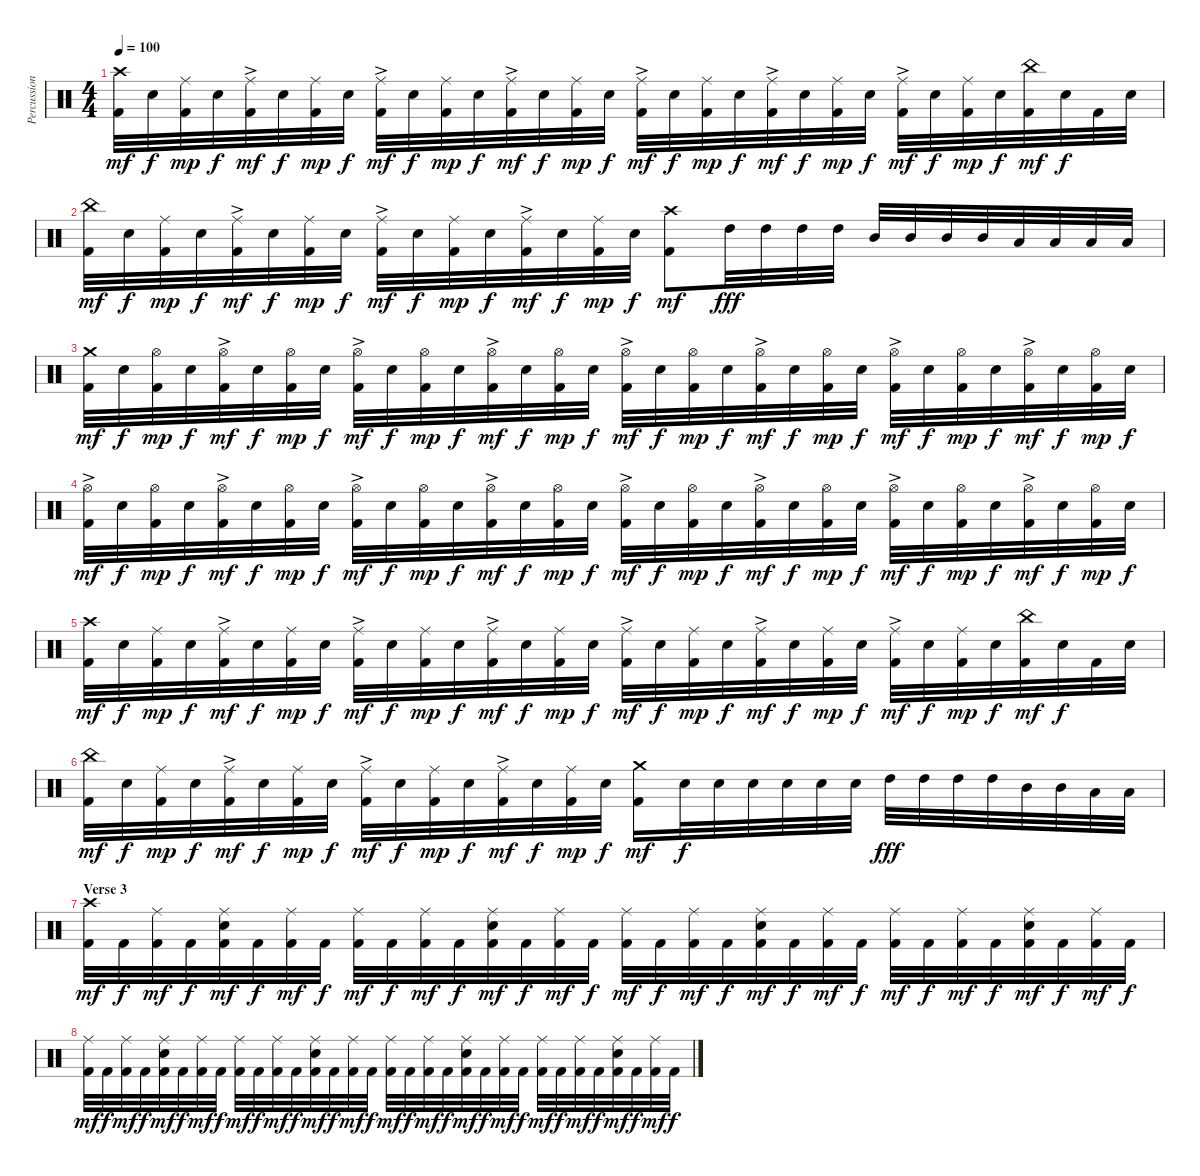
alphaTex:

\track ("Percussion" "Percussion") {instrument percussion}
\staff {score}
\articulation defaults
\ts (4 4)
\tempo 100
\clef neutral
\ks c
("Crash high (hit)" "Kick (hit) 2").32{dy mf} "Electric Snare (hit)".32{dy f} ("Ride (middle)" "Kick (hit) 2").32{dy mp} "Electric Snare (hit)".32{dy f} ("Ride (middle)"{ac} "Kick (hit) 2").32{dy mf} "Electric Snare (hit)".32{dy f} ("Ride (middle)" "Kick (hit) 2").32{dy mp} "Electric Snare (hit)".32{dy f} ("Ride (middle)"{ac} "Kick (hit) 2").32{dy mf} "Electric Snare (hit)".32{dy f} ("Ride (middle)" "Kick (hit) 2").32{dy mp} "Electric Snare (hit)".32{dy f} ("Ride (middle)"{ac} "Kick (hit) 2").32{dy mf} "Electric Snare (hit)".32{dy f} ("Ride (middle)" "Kick (hit) 2").32{dy mp} "Electric Snare (hit)".32{dy f} ("Ride (middle)"{ac} "Kick (hit) 2").32{dy mf} "Electric Snare (hit)".32{dy f} ("Ride (middle)" "Kick (hit) 2").32{dy mp} "Electric Snare (hit)".32{dy f} ("Ride (middle)"{ac} "Kick (hit) 2").32{dy mf} "Electric Snare (hit)".32{dy f} ("Ride (middle)" "Kick (hit) 2").32{dy mp} "Electric Snare (hit)".32{dy f} ("Ride (middle)"{ac} "Kick (hit) 2").32{dy mf} "Electric Snare (hit)".32{dy f} ("Ride (middle)" "Kick (hit) 2").32{dy mp} "Electric Snare (hit)".32{dy f} ("China (hit)" "Kick (hit) 2").32{dy mf} "Electric Snare (hit)".32{dy f} "Kick (hit) 2".32 "Electric Snare (hit)".32 |
("China (hit)" "Kick (hit) 2").32{dy mf} "Electric Snare (hit)".32{dy f} ("Ride (middle)" "Kick (hit) 2").32{dy mp} "Electric Snare (hit)".32{dy f} ("Ride (middle)"{ac} "Kick (hit) 2").32{dy mf} "Electric Snare (hit)".32{dy f} ("Ride (middle)" "Kick (hit) 2").32{dy mp} "Electric Snare (hit)".32{dy f} ("Ride (middle)"{ac} "Kick (hit) 2").32{dy mf} "Electric Snare (hit)".32{dy f} ("Ride (middle)" "Kick (hit) 2").32{dy mp} "Electric Snare (hit)".32{dy f} ("Ride (middle)"{ac} "Kick (hit) 2").32{dy mf} "Electric Snare (hit)".32{dy f} ("Ride (middle)" "Kick (hit) 2").32{dy mp} "Electric Snare (hit)".32{dy f} ("Crash high (hit)" "Kick (hit) 2").8{dy mf} "High Tom (hit)".32{dy fff} "High Tom (hit)".32 "High Tom (hit)".32 "High Tom (hit)".32 "Mid Tom (hit)".32 "Mid Tom (hit)".32 "Mid Tom (hit)".32 "Mid Tom (hit)".32 "Low Tom (hit)".32 "Low Tom (hit)".32 "Low Tom (hit)".32 "Low Tom (hit)".32 |
("Crash medium (hit)" "Kick (hit) 2").32{dy mf} "Electric Snare (hit)".32{dy f} ("Hi-Hat (open)" "Kick (hit) 2").32{dy mp} "Electric Snare (hit)".32{dy f} ("Hi-Hat (open)"{ac} "Kick (hit) 2").32{dy mf} "Electric Snare (hit)".32{dy f} ("Hi-Hat (open)" "Kick (hit) 2").32{dy mp} "Electric Snare (hit)".32{dy f} ("Hi-Hat (open)"{ac} "Kick (hit) 2").32{dy mf} "Electric Snare (hit)".32{dy f} ("Hi-Hat (open)" "Kick (hit) 2").32{dy mp} "Electric Snare (hit)".32{dy f} ("Hi-Hat (open)"{ac} "Kick (hit) 2").32{dy mf} "Electric Snare (hit)".32{dy f} ("Hi-Hat (open)" "Kick (hit) 2").32{dy mp} "Electric Snare (hit)".32{dy f} ("Hi-Hat (open)"{ac} "Kick (hit) 2").32{dy mf} "Electric Snare (hit)".32{dy f} ("Hi-Hat (open)" "Kick (hit) 2").32{dy mp} "Electric Snare (hit)".32{dy f} ("Hi-Hat (open)"{ac} "Kick (hit) 2").32{dy mf} "Electric Snare (hit)".32{dy f} ("Hi-Hat (open)" "Kick (hit) 2").32{dy mp} "Electric Snare (hit)".32{dy f} ("Hi-Hat (open)"{ac} "Kick (hit) 2").32{dy mf} "Electric Snare (hit)".32{dy f} ("Hi-Hat (open)" "Kick (hit) 2").32{dy mp} "Electric Snare (hit)".32{dy f} ("Hi-Hat (open)"{ac} "Kick (hit) 2").32{dy mf} "Electric Snare (hit)".32{dy f} ("Hi-Hat (open)" "Kick (hit) 2").32{dy mp} "Electric Snare (hit)".32{dy f} |
("Hi-Hat (open)"{ac} "Kick (hit) 2").32{dy mf} "Electric Snare (hit)".32{dy f} ("Hi-Hat (open)" "Kick (hit) 2").32{dy mp} "Electric Snare (hit)".32{dy f} ("Hi-Hat (open)"{ac} "Kick (hit) 2").32{dy mf} "Electric Snare (hit)".32{dy f} ("Hi-Hat (open)" "Kick (hit) 2").32{dy mp} "Electric Snare (hit)".32{dy f} ("Hi-Hat (open)"{ac} "Kick (hit) 2").32{dy mf} "Electric Snare (hit)".32{dy f} ("Hi-Hat (open)" "Kick (hit) 2").32{dy mp} "Electric Snare (hit)".32{dy f} ("Hi-Hat (open)"{ac} "Kick (hit) 2").32{dy mf} "Electric Snare (hit)".32{dy f} ("Hi-Hat (open)" "Kick (hit) 2").32{dy mp} "Electric Snare (hit)".32{dy f} ("Hi-Hat (open)"{ac} "Kick (hit) 2").32{dy mf} "Electric Snare (hit)".32{dy f} ("Hi-Hat (open)" "Kick (hit) 2").32{dy mp} "Electric Snare (hit)".32{dy f} ("Hi-Hat (open)"{ac} "Kick (hit) 2").32{dy mf} "Electric Snare (hit)".32{dy f} ("Hi-Hat (open)" "Kick (hit) 2").32{dy mp} "Electric Snare (hit)".32{dy f} ("Hi-Hat (open)"{ac} "Kick (hit) 2").32{dy mf} "Electric Snare (hit)".32{dy f} ("Hi-Hat (open)" "Kick (hit) 2").32{dy mp} "Electric Snare (hit)".32{dy f} ("Hi-Hat (open)"{ac} "Kick (hit) 2").32{dy mf} "Electric Snare (hit)".32{dy f} ("Hi-Hat (open)" "Kick (hit) 2").32{dy mp} "Electric Snare (hit)".32{dy f} |
("Crash high (hit)" "Kick (hit) 2").32{dy mf} "Electric Snare (hit)".32{dy f} ("Ride (middle)" "Kick (hit) 2").32{dy mp} "Electric Snare (hit)".32{dy f} ("Ride (middle)"{ac} "Kick (hit) 2").32{dy mf} "Electric Snare (hit)".32{dy f} ("Ride (middle)" "Kick (hit) 2").32{dy mp} "Electric Snare (hit)".32{dy f} ("Ride (middle)"{ac} "Kick (hit) 2").32{dy mf} "Electric Snare (hit)".32{dy f} ("Ride (middle)" "Kick (hit) 2").32{dy mp} "Electric Snare (hit)".32{dy f} ("Ride (middle)"{ac} "Kick (hit) 2").32{dy mf} "Electric Snare (hit)".32{dy f} ("Ride (middle)" "Kick (hit) 2").32{dy mp} "Electric Snare (hit)".32{dy f} ("Ride (middle)"{ac} "Kick (hit) 2").32{dy mf} "Electric Snare (hit)".32{dy f} ("Ride (middle)" "Kick (hit) 2").32{dy mp} "Electric Snare (hit)".32{dy f} ("Ride (middle)"{ac} "Kick (hit) 2").32{dy mf} "Electric Snare (hit)".32{dy f} ("Ride (middle)" "Kick (hit) 2").32{dy mp} "Electric Snare (hit)".32{dy f} ("Ride (middle)"{ac} "Kick (hit) 2").32{dy mf} "Electric Snare (hit)".32{dy f} ("Ride (middle)" "Kick (hit) 2").32{dy mp} "Electric Snare (hit)".32{dy f} ("China (hit)" "Kick (hit) 2").32{dy mf} "Electric Snare (hit)".32{dy f} "Kick (hit) 2".32 "Electric Snare (hit)".32 |
("China (hit)" "Kick (hit) 2").32{dy mf} "Electric Snare (hit)".32{dy f} ("Ride (middle)" "Kick (hit) 2").32{dy mp} "Electric Snare (hit)".32{dy f} ("Ride (middle)"{ac} "Kick (hit) 2").32{dy mf} "Electric Snare (hit)".32{dy f} ("Ride (middle)" "Kick (hit) 2").32{dy mp} "Electric Snare (hit)".32{dy f} ("Ride (middle)"{ac} "Kick (hit) 2").32{dy mf} "Electric Snare (hit)".32{dy f} ("Ride (middle)" "Kick (hit) 2").32{dy mp} "Electric Snare (hit)".32{dy f} ("Ride (middle)"{ac} "Kick (hit) 2").32{dy mf} "Electric Snare (hit)".32{dy f} ("Ride (middle)" "Kick (hit) 2").32{dy mp} "Electric Snare (hit)".32{dy f} ("Crash medium (hit)" "Kick (hit) 2").16{dy mf} "Electric Snare (hit)".32{dy f} "Electric Snare (hit)".32 "Electric Snare (hit)".32 "Electric Snare (hit)".32 "Electric Snare (hit)".32 "Electric Snare (hit)".32 "High Tom (hit)".32{dy fff} "High Tom (hit)".32 "High Tom (hit)".32 "High Tom (hit)".32 "Mid Tom (hit)".32 "Mid Tom (hit)".32 "Low Tom (hit)".32 "Low Tom (hit)".32 |
\section ("" "Verse 3")
("Crash high (hit)" "Kick (hit) 2").32{dy mf} "Kick (hit) 2".32{dy f} ("Ride (middle)" "Kick (hit) 2").32{dy mf} "Kick (hit) 2".32{dy f} ("Ride (middle)" "Electric Snare (hit)" "Kick (hit) 2").32{dy mf} "Kick (hit) 2".32{dy f} ("Ride (middle)" "Kick (hit) 2").32{dy mf} "Kick (hit) 2".32{dy f} ("Ride (middle)" "Kick (hit) 2").32{dy mf} "Kick (hit) 2".32{dy f} ("Ride (middle)" "Kick (hit) 2").32{dy mf} "Kick (hit) 2".32{dy f} ("Ride (middle)" "Electric Snare (hit)" "Kick (hit) 2").32{dy mf} "Kick (hit) 2".32{dy f} ("Ride (middle)" "Kick (hit) 2").32{dy mf} "Kick (hit) 2".32{dy f} ("Ride (middle)" "Kick (hit) 2").32{dy mf} "Kick (hit) 2".32{dy f} ("Ride (middle)" "Kick (hit) 2").32{dy mf} "Kick (hit) 2".32{dy f} ("Ride (middle)" "Electric Snare (hit)" "Kick (hit) 2").32{dy mf} "Kick (hit) 2".32{dy f} ("Ride (middle)" "Kick (hit) 2").32{dy mf} "Kick (hit) 2".32{dy f} ("Ride (middle)" "Kick (hit) 2").32{dy mf} "Kick (hit) 2".32{dy f} ("Ride (middle)" "Kick (hit) 2").32{dy mf} "Kick (hit) 2".32{dy f} ("Ride (middle)" "Electric Snare (hit)" "Kick (hit) 2").32{dy mf} "Kick (hit) 2".32{dy f} ("Ride (middle)" "Kick (hit) 2").32{dy mf} "Kick (hit) 2".32{dy f} |
("Ride (middle)" "Kick (hit) 2").32{dy mf} "Kick (hit) 2".32{dy f} ("Ride (middle)" "Kick (hit) 2").32{dy mf} "Kick (hit) 2".32{dy f} ("Ride (middle)" "Electric Snare (hit)" "Kick (hit) 2").32{dy mf} "Kick (hit) 2".32{dy f} ("Ride (middle)" "Kick (hit) 2").32{dy mf} "Kick (hit) 2".32{dy f} ("Ride (middle)" "Kick (hit) 2").32{dy mf} "Kick (hit) 2".32{dy f} ("Ride (middle)" "Kick (hit) 2").32{dy mf} "Kick (hit) 2".32{dy f} ("Ride (middle)" "Electric Snare (hit)" "Kick (hit) 2").32{dy mf} "Kick (hit) 2".32{dy f} ("Ride (middle)" "Kick (hit) 2").32{dy mf} "Kick (hit) 2".32{dy f} ("Ride (middle)" "Kick (hit) 2").32{dy mf} "Kick (hit) 2".32{dy f} ("Ride (middle)" "Kick (hit) 2").32{dy mf} "Kick (hit) 2".32{dy f} ("Ride (middle)" "Electric Snare (hit)" "Kick (hit) 2").32{dy mf} "Kick (hit) 2".32{dy f} ("Ride (middle)" "Kick (hit) 2").32{dy mf} "Kick (hit) 2".32{dy f} ("Ride (middle)" "Kick (hit) 2").32{dy mf} "Kick (hit) 2".32{dy f} ("Ride (middle)" "Kick (hit) 2").32{dy mf} "Kick (hit) 2".32{dy f} ("Ride (middle)" "Electric Snare (hit)" "Kick (hit) 2").32{dy mf} "Kick (hit) 2".32{dy f} ("Ride (middle)" "Kick (hit) 2").32{dy mf} "Kick (hit) 2".32{dy f}
